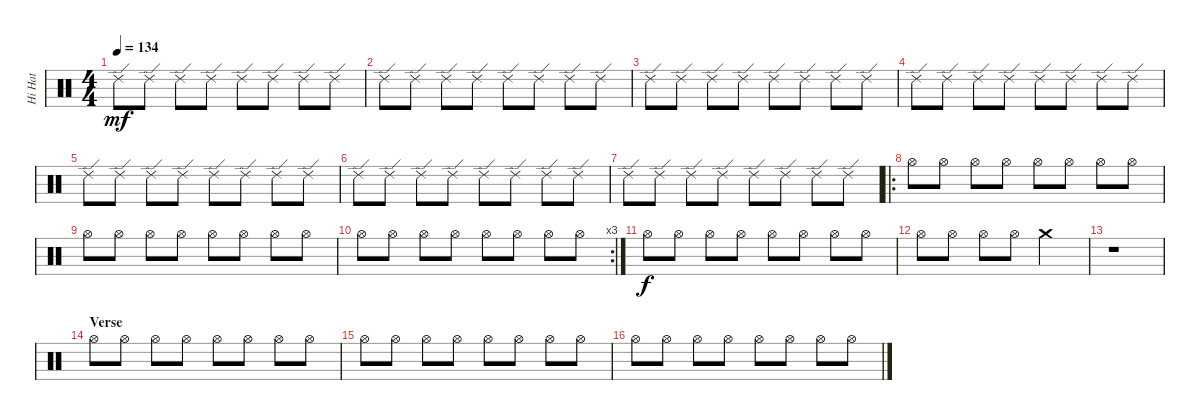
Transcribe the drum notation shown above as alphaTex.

\track ("Hi Hat" "Hi Hat") {instrument percussion}
\staff {score}
\articulation defaults
\ts (4 4)
\tempo 134
\clef neutral
\ks c "Ride (edge) 2".8{dy mf} "Ride (edge) 2".8 "Ride (edge) 2".8 "Ride (edge) 2".8 "Ride (edge) 2".8 "Ride (edge) 2".8 "Ride (edge) 2".8 "Ride (edge) 2".8
|
"Ride (edge) 2".8 "Ride (edge) 2".8 "Ride (edge) 2".8 "Ride (edge) 2".8 "Ride (edge) 2".8 "Ride (edge) 2".8 "Ride (edge) 2".8 "Ride (edge) 2".8 |
"Ride (edge) 2".8 "Ride (edge) 2".8 "Ride (edge) 2".8 "Ride (edge) 2".8 "Ride (edge) 2".8 "Ride (edge) 2".8 "Ride (edge) 2".8 "Ride (edge) 2".8 |
"Ride (edge) 2".8 "Ride (edge) 2".8 "Ride (edge) 2".8 "Ride (edge) 2".8 "Ride (edge) 2".8 "Ride (edge) 2".8 "Ride (edge) 2".8 "Ride (edge) 2".8 |
"Ride (edge) 2".8 "Ride (edge) 2".8 "Ride (edge) 2".8 "Ride (edge) 2".8 "Ride (edge) 2".8 "Ride (edge) 2".8 "Ride (edge) 2".8 "Ride (edge) 2".8 |
"Ride (edge) 2".8 "Ride (edge) 2".8 "Ride (edge) 2".8 "Ride (edge) 2".8 "Ride (edge) 2".8 "Ride (edge) 2".8 "Ride (edge) 2".8 "Ride (edge) 2".8 |
"Ride (edge) 2".8 "Ride (edge) 2".8 "Ride (edge) 2".8 "Ride (edge) 2".8 "Ride (edge) 2".8 "Ride (edge) 2".8 "Ride (edge) 2".8 "Ride (edge) 2".8 |
\ro "Hi-Hat (open)".8 "Hi-Hat (open)".8 "Hi-Hat (open)".8 "Hi-Hat (open)".8 "Hi-Hat (open)".8 "Hi-Hat (open)".8 "Hi-Hat (open)".8 "Hi-Hat (open)".8
|
"Hi-Hat (open)".8 "Hi-Hat (open)".8 "Hi-Hat (open)".8 "Hi-Hat (open)".8 "Hi-Hat (open)".8 "Hi-Hat (open)".8 "Hi-Hat (open)".8 "Hi-Hat (open)".8 |
\rc 3 "Hi-Hat (open)".8 "Hi-Hat (open)".8 "Hi-Hat (open)".8 "Hi-Hat (open)".8 "Hi-Hat (open)".8 "Hi-Hat (open)".8 "Hi-Hat (open)".8 "Hi-Hat (open)".8
|
"Hi-Hat (open)".8{dy f} "Hi-Hat (open)".8 "Hi-Hat (open)".8 "Hi-Hat (open)".8 "Hi-Hat (open)".8 "Hi-Hat (open)".8 "Hi-Hat (open)".8 "Hi-Hat (open)".8 |
"Hi-Hat (open)".8 "Hi-Hat (open)".8 "Hi-Hat (open)".8 "Hi-Hat (open)".8 "Crash medium (hit)".2 |
r.1 |
\section ("" "Verse")
"Hi-Hat (open)".8 "Hi-Hat (open)".8 "Hi-Hat (open)".8 "Hi-Hat (open)".8 "Hi-Hat (open)".8 "Hi-Hat (open)".8 "Hi-Hat (open)".8 "Hi-Hat (open)".8 |
"Hi-Hat (open)".8 "Hi-Hat (open)".8 "Hi-Hat (open)".8 "Hi-Hat (open)".8 "Hi-Hat (open)".8 "Hi-Hat (open)".8 "Hi-Hat (open)".8 "Hi-Hat (open)".8 |
"Hi-Hat (open)".8 "Hi-Hat (open)".8 "Hi-Hat (open)".8 "Hi-Hat (open)".8 "Hi-Hat (open)".8 "Hi-Hat (open)".8 "Hi-Hat (open)".8 "Hi-Hat (open)".8
